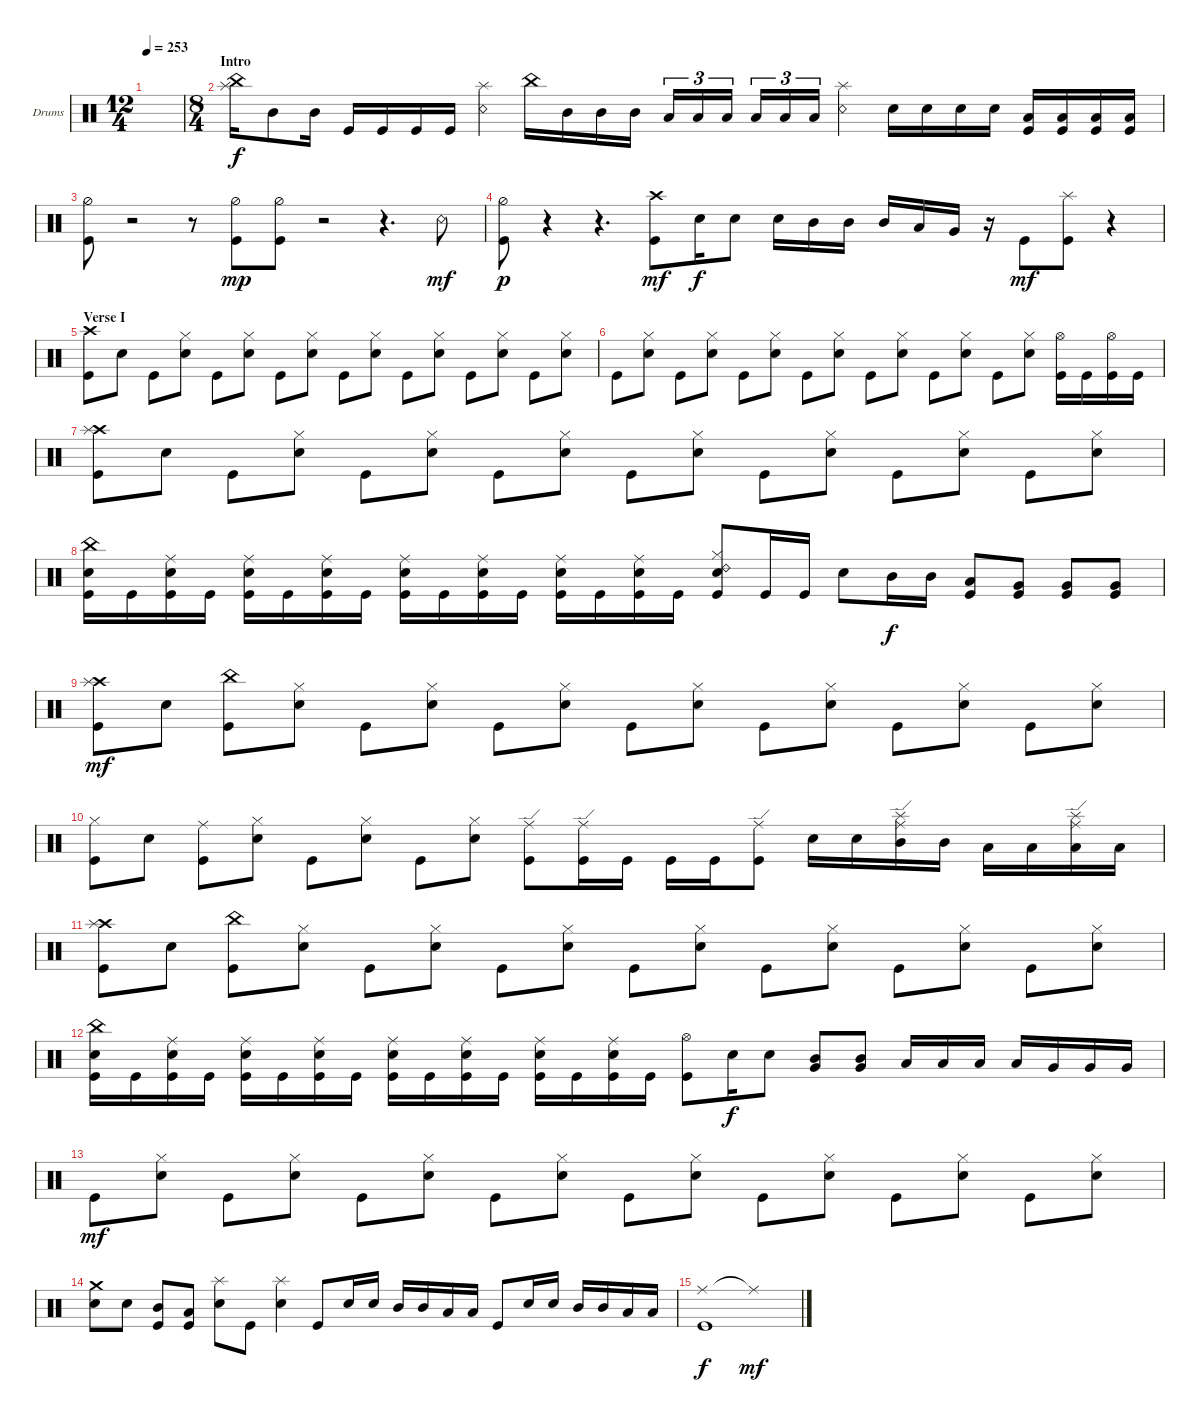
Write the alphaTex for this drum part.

\defaultSystemsLayout 4
\bracketExtendMode groupsimilarinstruments
\firstSystemTrackNameOrientation horizontal
\otherSystemsTrackNameOrientation horizontal
\track ("Samuel Santiago" "Drums") {instrument percussion}
\staff {score}
\articulation defaults
\ts (12 4)
\tempo 253
\clef neutral
\ks c
|
\ts (8 4)
\section ("" "Intro")
("Splash (hit)" "China (hit)").16 "Mid Tom (hit)".8 "Mid Tom (hit)".16 "Kick (hit)".16 "Kick (hit)".16 "Kick (hit)".16 "Kick (hit)".16 ("Snare (rim shot)" "Splash (hit)").4 "China (hit)".16 "Mid Tom (hit)".16 "Mid Tom (hit)".16 "Mid Tom (hit)".16 "Low Tom (hit)".16{tu (3 2)} "Low Tom (hit)".16{tu (3 2)} "Low Tom (hit)".16{tu (3 2)} "Low Tom (hit)".16{tu (3 2)} "Low Tom (hit)".16{tu (3 2)} "Low Tom (hit)".16{tu (3 2)} ("Snare (rim shot)" "Splash (hit)").4 "Snare (hit) 2".16 "Snare (hit) 2".16 "Snare (hit) 2".16 "Snare (hit) 2".16 ("Low Tom (hit)" "Kick (hit)").16 ("Low Tom (hit)" "Kick (hit)").16 ("Low Tom (hit)" "Kick (hit)").16 ("Low Tom (hit)" "Kick (hit)").16 |
("Kick (hit)" "Hi-Hat (half)").8 r.2 r.8 ("Kick (hit)" "Hi-Hat (half)").8{dy mp} ("Kick (hit)" "Hi-Hat (half)").8 r.2 r.4{d} "Snare (rim shot)".8{dy mf} |
("Kick (hit)" "Hi-Hat (half)").8{dy p} r.4 r.4{d} ("Kick (hit)" "Crash high (hit)").8{dy mf} "Snare (hit) 2".16{dy f} "Snare (hit) 2".8 "Snare (hit) 2".16 "Mid Tom (hit)".16 "Mid Tom (hit)".16 "Mid Tom (hit)".16 "Low Tom (hit)".16 "Very Low Tom (hit)".16 r.16 "Kick (hit)".8{dy mf} ("Splash (hit)" "Kick (hit)").8 r.4 |
\section ("" "Verse I")
("Kick (hit)" "Crash high (hit)").8 "Snare (hit) 2".8 "Kick (hit)".8 ("Snare (hit) 2" "Hi-Hat (closed)").8 "Kick (hit)".8 ("Snare (hit) 2" "Hi-Hat (closed)").8 "Kick (hit)".8 ("Snare (hit) 2" "Hi-Hat (closed)").8 "Kick (hit)".8 ("Snare (hit) 2" "Hi-Hat (closed)").8 "Kick (hit)".8 ("Snare (hit) 2" "Hi-Hat (closed)").8 "Kick (hit)".8 ("Snare (hit) 2" "Hi-Hat (closed)").8 "Kick (hit)".8 ("Snare (hit) 2" "Hi-Hat (closed)").8 |
"Kick (hit)".8 ("Snare (hit) 2" "Hi-Hat (closed)").8 "Kick (hit)".8 ("Snare (hit) 2" "Hi-Hat (closed)").8 "Kick (hit)".8 ("Snare (hit) 2" "Hi-Hat (closed)").8 "Kick (hit)".8 ("Snare (hit) 2" "Hi-Hat (closed)").8 "Kick (hit)".8 ("Snare (hit) 2" "Hi-Hat (closed)").8 "Kick (hit)".8 ("Snare (hit) 2" "Hi-Hat (closed)").8 "Kick (hit)".8 ("Snare (hit) 2" "Hi-Hat (closed)").8 ("Kick (hit)" "Hi-Hat (open)").16 "Kick (hit)".16 ("Kick (hit)" "Hi-Hat (open)").16 "Kick (hit)".16 |
("Kick (hit)" "Crash high (hit)" "Splash (hit)").8 "Snare (hit) 2".8 "Kick (hit)".8 ("Snare (hit) 2" "Hi-Hat (closed)").8 "Kick (hit)".8 ("Snare (hit) 2" "Hi-Hat (closed)").8 "Kick (hit)".8 ("Snare (hit) 2" "Hi-Hat (closed)").8 "Kick (hit)".8 ("Snare (hit) 2" "Hi-Hat (closed)").8 "Kick (hit)".8 ("Snare (hit) 2" "Hi-Hat (closed)").8 "Kick (hit)".8 ("Snare (hit) 2" "Hi-Hat (closed)").8 "Kick (hit)".8 ("Snare (hit) 2" "Hi-Hat (closed)").8 |
("Kick (hit)" "Snare (hit) 2" "China (hit)").16 "Kick (hit)".16 ("Kick (hit)" "Snare (hit) 2" "Ride (middle)").16 "Kick (hit)".16 ("Kick (hit)" "Snare (hit) 2" "Ride (middle)").16 "Kick (hit)".16 ("Kick (hit)" "Snare (hit) 2" "Ride (middle)").16 "Kick (hit)".16 ("Kick (hit)" "Snare (hit) 2" "Ride (middle)").16 "Kick (hit)".16 ("Kick (hit)" "Snare (hit) 2" "Ride (middle)").16 "Kick (hit)".16 ("Kick (hit)" "Snare (hit) 2" "Ride (middle)").16 "Kick (hit)".16 ("Kick (hit)" "Snare (hit) 2" "Ride (middle)").16 "Kick (hit)".16 ("Kick (hit)" "Snare (hit) 2" "Ride (bell) 2" "Hi-Hat (closed)").8 "Kick (hit)".16 "Kick (hit)".16 "Snare (hit) 2".8 "Mid Tom (hit)".16{dy f} "Mid Tom (hit)".16 ("Low Tom (hit)" "Kick (hit)").8 ("Very Low Tom (hit)" "Kick (hit)").8 ("Very Low Tom (hit)" "Kick (hit)").8 ("Very Low Tom (hit)" "Kick (hit)").8 |
\scale
0.620352 ("Kick (hit)" "Crash high (hit)" "Splash (hit)").8{dy mf} "Snare (hit) 2".8 ("Kick (hit)" "China (hit)").8 ("Snare (hit) 2" "Hi-Hat (closed)").8 "Kick (hit)".8 ("Snare (hit) 2" "Hi-Hat (closed)").8 "Kick (hit)".8 ("Snare (hit) 2" "Hi-Hat (closed)").8 "Kick (hit)".8 ("Snare (hit) 2" "Hi-Hat (closed)").8 "Kick (hit)".8 ("Snare (hit) 2" "Hi-Hat (closed)").8 "Kick (hit)".8 ("Snare (hit) 2" "Hi-Hat (closed)").8 "Kick (hit)".8 ("Snare (hit) 2" "Hi-Hat (closed)").8 |
\scale
0.379648 ("Kick (hit)" "Hi-Hat (closed)").8 "Snare (hit) 2".8 ("Kick (hit)" "Ride (middle)").8 ("Snare (hit) 2" "Hi-Hat (closed)").8 "Kick (hit)".8 ("Snare (hit) 2" "Hi-Hat (closed)").8 "Kick (hit)".8 ("Snare (hit) 2" "Hi-Hat (closed)").8 ("Kick (hit)" "Ride (edge)").8 ("Kick (hit)" "Ride (edge)").16 "Kick (hit)".16 "Kick (hit)".16 "Kick (hit)".16 ("Kick (hit)" "Ride (edge)").8 "Snare (hit) 2".16 "Snare (hit) 2".16 ("Mid Tom (hit)" "Ride (edge)" "Splash (hit)").16 "Mid Tom (hit)".16 "Low Tom (hit)".16 "Low Tom (hit)".16 ("Low Tom (hit)" "Splash (hit)" "Ride (edge)").16 "Low Tom (hit)".16 |
("Kick (hit)" "Crash high (hit)" "Splash (hit)").8 "Snare (hit) 2".8 ("Kick (hit)" "China (hit)").8 ("Snare (hit) 2" "Hi-Hat (closed)").8 "Kick (hit)".8 ("Snare (hit) 2" "Hi-Hat (closed)").8 "Kick (hit)".8 ("Snare (hit) 2" "Hi-Hat (closed)").8 "Kick (hit)".8 ("Snare (hit) 2" "Hi-Hat (closed)").8 "Kick (hit)".8 ("Snare (hit) 2" "Hi-Hat (closed)").8 "Kick (hit)".8 ("Snare (hit) 2" "Hi-Hat (closed)").8 "Kick (hit)".8 ("Snare (hit) 2" "Hi-Hat (closed)").8 |
("Kick (hit)" "Snare (hit) 2" "China (hit)").16 "Kick (hit)".16 ("Kick (hit)" "Snare (hit) 2" "Ride (middle)").16 "Kick (hit)".16 ("Kick (hit)" "Snare (hit) 2" "Ride (middle)").16 "Kick (hit)".16 ("Kick (hit)" "Snare (hit) 2" "Ride (middle)").16 "Kick (hit)".16 ("Kick (hit)" "Snare (hit) 2" "Ride (middle)").16 "Kick (hit)".16 ("Kick (hit)" "Snare (hit) 2" "Ride (middle)").16 "Kick (hit)".16 ("Kick (hit)" "Snare (hit) 2" "Ride (middle)").16 "Kick (hit)".16 ("Kick (hit)" "Snare (hit) 2" "Ride (middle)").16 "Kick (hit)".16 ("Kick (hit)" "Hi-Hat (open)").8 "Snare (hit) 2".16{dy f} "Snare (hit) 2".8 ("Mid Tom (hit)" "Very Low Tom (hit)").8 ("Mid Tom (hit)" "Very Low Tom (hit)").8 "Low Tom (hit)".16 "Low Tom (hit)".16 "Low Tom (hit)".16 "Low Tom (hit)".16 "Very Low Tom (hit)".16 "Very Low Tom (hit)".16 "Very Low Tom (hit)".16 |
"Kick (hit)".8{dy mf} ("Snare (hit) 2" "Hi-Hat (closed)").8 "Kick (hit)".8 ("Snare (hit) 2" "Hi-Hat (closed)").8 "Kick (hit)".8 ("Snare (hit) 2" "Hi-Hat (closed)").8 "Kick (hit)".8 ("Snare (hit) 2" "Hi-Hat (closed)").8 "Kick (hit)".8 ("Snare (hit) 2" "Hi-Hat (closed)").8 "Kick (hit)".8 ("Snare (hit) 2" "Hi-Hat (closed)").8 "Kick (hit)".8 ("Snare (hit) 2" "Hi-Hat (closed)").8 "Kick (hit)".8 ("Snare (hit) 2" "Hi-Hat (closed)").8 |
("Snare (hit) 2" "Crash medium (hit)").8 "Snare (hit) 2".8 ("Kick (hit)" "Mid Tom (hit)").8 ("Kick (hit)" "Low Tom (hit)").8 ("Snare (hit) 2" "Splash (hit)").8 "Kick (hit)".8 ("Snare (hit) 2" "Splash (hit)").4 "Kick (hit)".8 "Snare (hit) 2".16 "Snare (hit) 2".16 "Mid Tom (hit)".16 "Mid Tom (hit)".16 "Low Tom (hit)".16 "Low Tom (hit)".16 "Kick (hit)".8 "Snare (hit) 2".16 "Snare (hit) 2".16 "Mid Tom (hit)".16 "Mid Tom (hit)".16 "Low Tom (hit)".16 "Low Tom (hit)".16 |
("Ride (middle)" "Kick (hit)").1{dy f} "Ride (middle)"{t}.1{dy mf}
